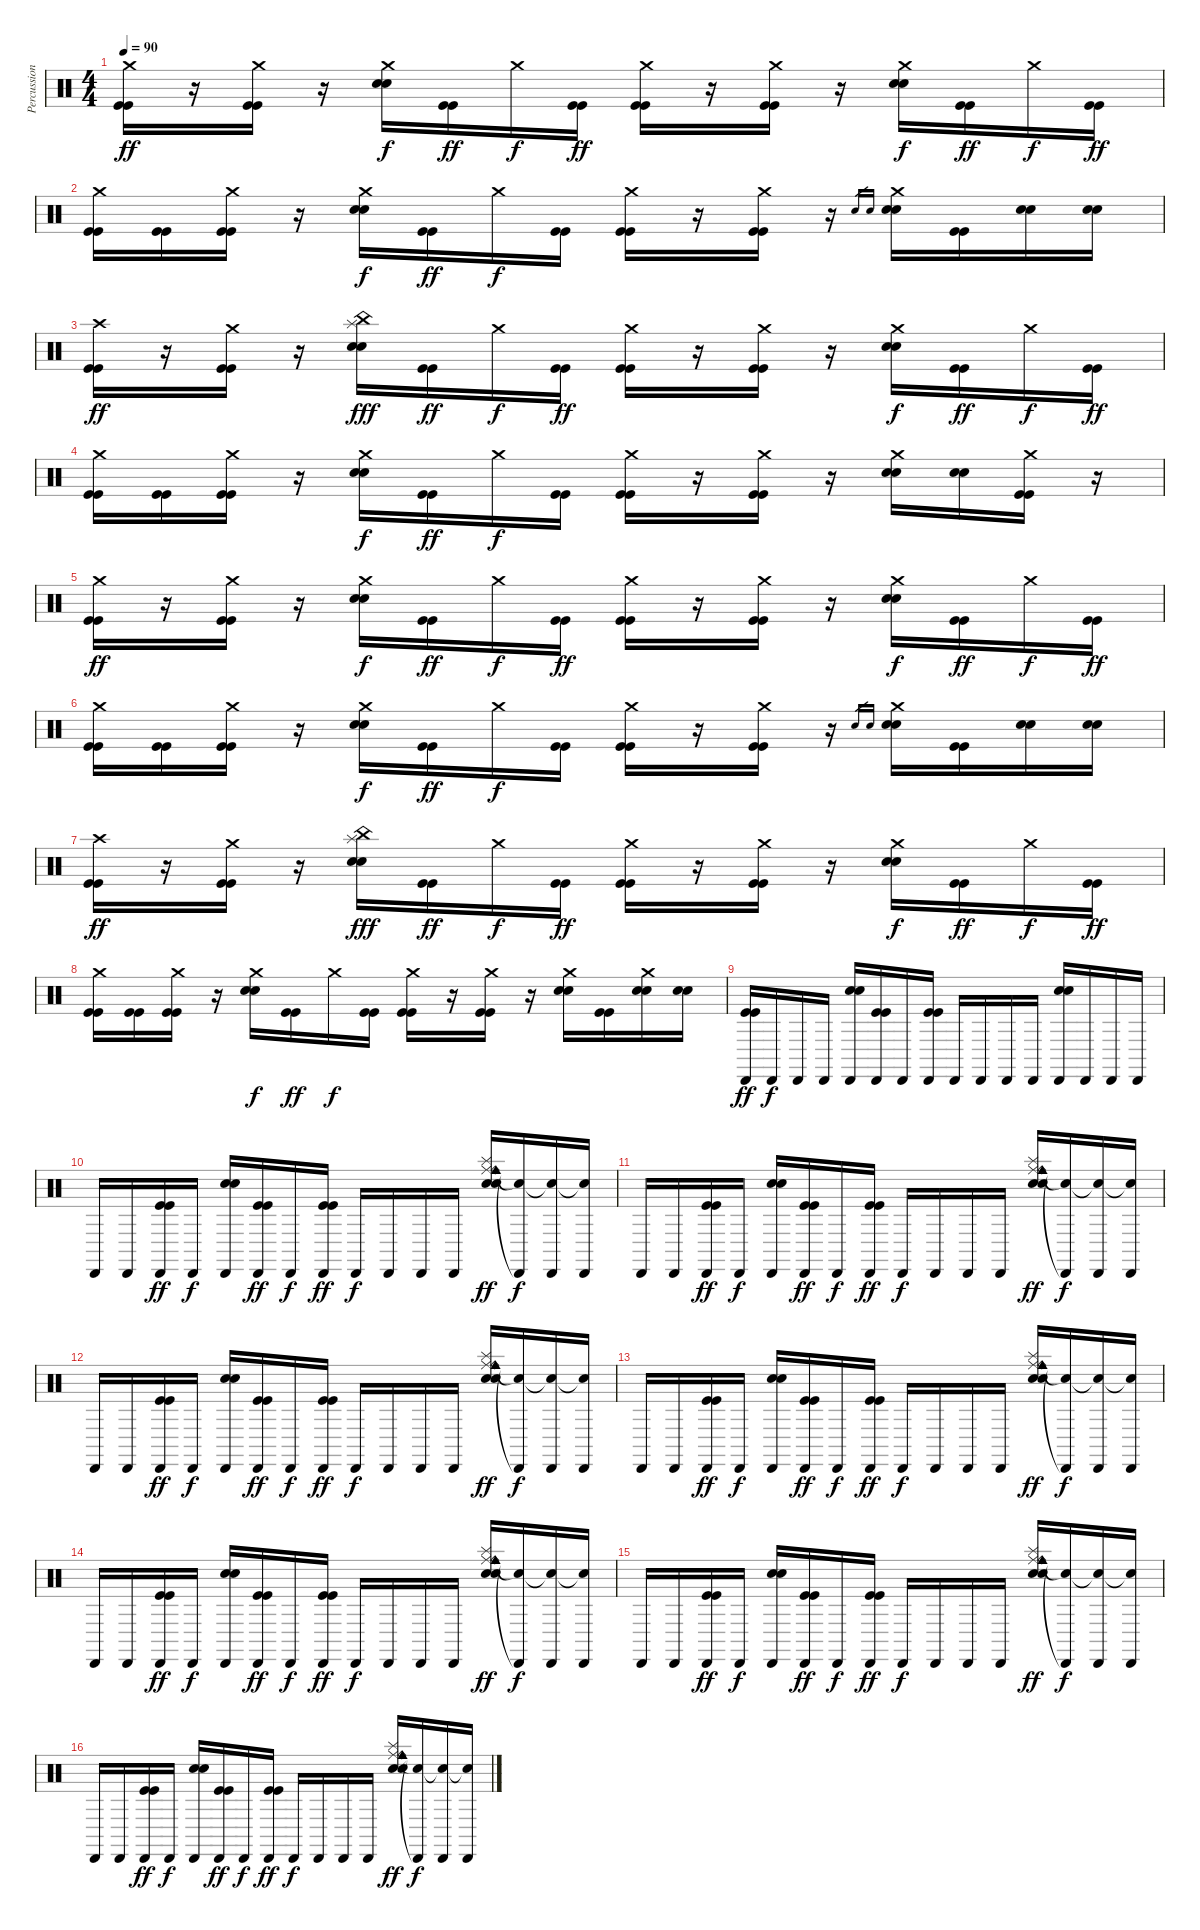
\track ("Percussions" "Percussion") {instrument percussion}
\staff {score}
\articulation defaults
\ts (4 4)
\tempo 90
\clef neutral
\ks c
("Crash medium (hit)" "Kick (hit)" "Kick (hit)").16{dy ff} r.16 ("Crash medium (hit)" "Kick (hit)" "Kick (hit)").16 r.16 ("Crash medium (hit)" "Electric Snare (hit)" "Electric Snare (hit)").16{dy f} ("Kick (hit)" "Kick (hit)").16{dy ff} "Crash medium (hit)".16{dy f} ("Kick (hit)" "Kick (hit)").16{dy ff} ("Crash medium (hit)" "Kick (hit)" "Kick (hit)").16 r.16 ("Crash medium (hit)" "Kick (hit)" "Kick (hit)").16 r.16 ("Crash medium (hit)" "Electric Snare (hit)" "Electric Snare (hit)").16{dy f} ("Kick (hit)" "Kick (hit)").16{dy ff} "Crash medium (hit)".16{dy f} ("Kick (hit)" "Kick (hit)").16{dy ff} |
("Crash medium (hit)" "Kick (hit)" "Kick (hit)").16 ("Kick (hit)" "Kick (hit)").16 ("Crash medium (hit)" "Kick (hit)" "Kick (hit)").16 r.16 ("Crash medium (hit)" "Electric Snare (hit)" "Electric Snare (hit)").16{dy f} ("Kick (hit)" "Kick (hit)").16{dy ff} "Crash medium (hit)".16{dy f} ("Kick (hit)" "Kick (hit)").16 ("Crash medium (hit)" "Kick (hit)" "Kick (hit)").16 r.16 ("Crash medium (hit)" "Kick (hit)" "Kick (hit)").16 r.16 "Electric Snare (hit)".16{gr} "Electric Snare (hit)".16{gr} ("Crash medium (hit)" "Electric Snare (hit)" "Electric Snare (hit)").16 ("Kick (hit)" "Kick (hit)").16 ("Electric Snare (hit)" "Electric Snare (hit)").16 ("Electric Snare (hit)" "Electric Snare (hit)").16 |
("Crash high (hit)" "Kick (hit)" "Kick (hit)").16{dy ff} r.16 ("Crash medium (hit)" "Kick (hit)" "Kick (hit)").16 r.16 ("China (hit)" "Splash (hit)" "Electric Snare (hit)" "Electric Snare (hit)").16{dy fff} ("Kick (hit)" "Kick (hit)").16{dy ff} "Crash medium (hit)".16{dy f} ("Kick (hit)" "Kick (hit)").16{dy ff} ("Crash medium (hit)" "Kick (hit)" "Kick (hit)").16 r.16 ("Crash medium (hit)" "Kick (hit)" "Kick (hit)").16 r.16 ("Crash medium (hit)" "Electric Snare (hit)" "Electric Snare (hit)").16{dy f} ("Kick (hit)" "Kick (hit)").16{dy ff} "Crash medium (hit)".16{dy f} ("Kick (hit)" "Kick (hit)").16{dy ff} |
("Crash medium (hit)" "Kick (hit)" "Kick (hit)").16 ("Kick (hit)" "Kick (hit)").16 ("Crash medium (hit)" "Kick (hit)" "Kick (hit)").16 r.16 ("Crash medium (hit)" "Electric Snare (hit)" "Electric Snare (hit)").16{dy f} ("Kick (hit)" "Kick (hit)").16{dy ff} "Crash medium (hit)".16{dy f} ("Kick (hit)" "Kick (hit)").16 ("Crash medium (hit)" "Kick (hit)" "Kick (hit)").16 r.16 ("Crash medium (hit)" "Kick (hit)" "Kick (hit)").16 r.16 ("Crash medium (hit)" "Electric Snare (hit)" "Electric Snare (hit)").16 ("Electric Snare (hit)" "Electric Snare (hit)").16 ("Crash medium (hit)" "Kick (hit)" "Kick (hit)").16 r.16 |
("Crash medium (hit)" "Kick (hit)" "Kick (hit)").16{dy ff} r.16 ("Crash medium (hit)" "Kick (hit)" "Kick (hit)").16 r.16 ("Crash medium (hit)" "Electric Snare (hit)" "Electric Snare (hit)").16{dy f} ("Kick (hit)" "Kick (hit)").16{dy ff} "Crash medium (hit)".16{dy f} ("Kick (hit)" "Kick (hit)").16{dy ff} ("Crash medium (hit)" "Kick (hit)" "Kick (hit)").16 r.16 ("Crash medium (hit)" "Kick (hit)" "Kick (hit)").16 r.16 ("Crash medium (hit)" "Electric Snare (hit)" "Electric Snare (hit)").16{dy f} ("Kick (hit)" "Kick (hit)").16{dy ff} "Crash medium (hit)".16{dy f} ("Kick (hit)" "Kick (hit)").16{dy ff} |
("Crash medium (hit)" "Kick (hit)" "Kick (hit)").16 ("Kick (hit)" "Kick (hit)").16 ("Crash medium (hit)" "Kick (hit)" "Kick (hit)").16 r.16 ("Crash medium (hit)" "Electric Snare (hit)" "Electric Snare (hit)").16{dy f} ("Kick (hit)" "Kick (hit)").16{dy ff} "Crash medium (hit)".16{dy f} ("Kick (hit)" "Kick (hit)").16 ("Crash medium (hit)" "Kick (hit)" "Kick (hit)").16 r.16 ("Crash medium (hit)" "Kick (hit)" "Kick (hit)").16 r.16 "Electric Snare (hit)".16{gr} "Electric Snare (hit)".16{gr} ("Crash medium (hit)" "Electric Snare (hit)" "Electric Snare (hit)").16 ("Kick (hit)" "Kick (hit)").16 ("Electric Snare (hit)" "Electric Snare (hit)").16 ("Electric Snare (hit)" "Electric Snare (hit)").16 |
("Crash high (hit)" "Kick (hit)" "Kick (hit)").16{dy ff} r.16 ("Crash medium (hit)" "Kick (hit)" "Kick (hit)").16 r.16 ("China (hit)" "Splash (hit)" "Electric Snare (hit)" "Electric Snare (hit)").16{dy fff} ("Kick (hit)" "Kick (hit)").16{dy ff} "Crash medium (hit)".16{dy f} ("Kick (hit)" "Kick (hit)").16{dy ff} ("Crash medium (hit)" "Kick (hit)" "Kick (hit)").16 r.16 ("Crash medium (hit)" "Kick (hit)" "Kick (hit)").16 r.16 ("Crash medium (hit)" "Electric Snare (hit)" "Electric Snare (hit)").16{dy f} ("Kick (hit)" "Kick (hit)").16{dy ff} "Crash medium (hit)".16{dy f} ("Kick (hit)" "Kick (hit)").16{dy ff} |
("Crash medium (hit)" "Kick (hit)" "Kick (hit)").16 ("Kick (hit)" "Kick (hit)").16 ("Crash medium (hit)" "Kick (hit)" "Kick (hit)").16 r.16 ("Crash medium (hit)" "Electric Snare (hit)" "Electric Snare (hit)").16{dy f} ("Kick (hit)" "Kick (hit)").16{dy ff} "Crash medium (hit)".16{dy f} ("Kick (hit)" "Kick (hit)").16 ("Crash medium (hit)" "Kick (hit)" "Kick (hit)").16 r.16 ("Crash medium (hit)" "Kick (hit)" "Kick (hit)").16 r.16 ("Crash medium (hit)" "Electric Snare (hit)" "Electric Snare (hit)").16 ("Kick (hit)" "Kick (hit)").16 ("Crash medium (hit)" "Electric Snare (hit)" "Electric Snare (hit)").16 ("Electric Snare (hit)" "Electric Snare (hit)").16 |
("Cabasa (hit)" "Kick (hit)" "Kick (hit)").16{dy ff} "Cabasa (hit)".16{dy f} "Cabasa (hit)".16 "Cabasa (hit)".16 ("Cabasa (hit)" "Electric Snare (hit)" "Electric Snare (hit)").16 ("Cabasa (hit)" "Kick (hit)" "Kick (hit)").16 "Cabasa (hit)".16 ("Cabasa (hit)" "Kick (hit)" "Kick (hit)").16 "Cabasa (hit)".16 "Cabasa (hit)".16 "Cabasa (hit)".16 "Cabasa (hit)".16 ("Cabasa (hit)" "Electric Snare (hit)" "Electric Snare (hit)").16 "Cabasa (hit)".16 "Cabasa (hit)".16 "Cabasa (hit)".16 |
"Cabasa (hit)".16 "Cabasa (hit)".16 ("Cabasa (hit)" "Kick (hit)" "Kick (hit)").16{dy ff} "Cabasa (hit)".16{dy f} ("Cabasa (hit)" "Electric Snare (hit)" "Electric Snare (hit)").16 ("Cabasa (hit)" "Kick (hit)" "Kick (hit)").16{dy ff} "Cabasa (hit)".16{dy f} ("Cabasa (hit)" "Kick (hit)" "Kick (hit)").16{dy ff} "Cabasa (hit)".16{dy f} "Cabasa (hit)".16 "Cabasa (hit)".16 "Cabasa (hit)".16 ("Ride (middle)" "Cowbell medium (hit)" "Electric Snare (hit)" "Electric Snare (hit)" "Ride (bell)" "Splash (hit)").16{dy ff} ("Cabasa (hit)"{t} "Snare (hit)"{t}).16{dy f} ("Cabasa (hit)" "Snare (hit)"{t}).16 ("Cabasa (hit)" "Snare (hit)"{t}).16 |
"Cabasa (hit)".16 "Cabasa (hit)".16 ("Cabasa (hit)" "Kick (hit)" "Kick (hit)").16{dy ff} "Cabasa (hit)".16{dy f} ("Cabasa (hit)" "Electric Snare (hit)" "Electric Snare (hit)").16 ("Cabasa (hit)" "Kick (hit)" "Kick (hit)").16{dy ff} "Cabasa (hit)".16{dy f} ("Cabasa (hit)" "Kick (hit)" "Kick (hit)").16{dy ff} "Cabasa (hit)".16{dy f} "Cabasa (hit)".16 "Cabasa (hit)".16 "Cabasa (hit)".16 ("Ride (middle)" "Cowbell medium (hit)" "Electric Snare (hit)" "Electric Snare (hit)" "Ride (bell)" "Splash (hit)").16{dy ff} ("Cabasa (hit)"{t} "Snare (hit)"{t}).16{dy f} ("Cabasa (hit)" "Snare (hit)"{t}).16 ("Cabasa (hit)" "Snare (hit)"{t}).16 |
"Cabasa (hit)".16 "Cabasa (hit)".16 ("Cabasa (hit)" "Kick (hit)" "Kick (hit)").16{dy ff} "Cabasa (hit)".16{dy f} ("Cabasa (hit)" "Electric Snare (hit)" "Electric Snare (hit)").16 ("Cabasa (hit)" "Kick (hit)" "Kick (hit)").16{dy ff} "Cabasa (hit)".16{dy f} ("Cabasa (hit)" "Kick (hit)" "Kick (hit)").16{dy ff} "Cabasa (hit)".16{dy f} "Cabasa (hit)".16 "Cabasa (hit)".16 "Cabasa (hit)".16 ("Ride (middle)" "Cowbell medium (hit)" "Electric Snare (hit)" "Electric Snare (hit)" "Ride (bell)" "Splash (hit)").16{dy ff} ("Cabasa (hit)"{t} "Snare (hit)"{t}).16{dy f} ("Cabasa (hit)" "Snare (hit)"{t}).16 ("Cabasa (hit)" "Snare (hit)"{t}).16 |
"Cabasa (hit)".16 "Cabasa (hit)".16 ("Cabasa (hit)" "Kick (hit)" "Kick (hit)").16{dy ff} "Cabasa (hit)".16{dy f} ("Cabasa (hit)" "Electric Snare (hit)" "Electric Snare (hit)").16 ("Cabasa (hit)" "Kick (hit)" "Kick (hit)").16{dy ff} "Cabasa (hit)".16{dy f} ("Cabasa (hit)" "Kick (hit)" "Kick (hit)").16{dy ff} "Cabasa (hit)".16{dy f} "Cabasa (hit)".16 "Cabasa (hit)".16 "Cabasa (hit)".16 ("Ride (middle)" "Cowbell medium (hit)" "Electric Snare (hit)" "Electric Snare (hit)" "Ride (bell)" "Splash (hit)").16{dy ff} ("Cabasa (hit)"{t} "Snare (hit)"{t}).16{dy f} ("Cabasa (hit)" "Snare (hit)"{t}).16 ("Cabasa (hit)" "Snare (hit)"{t}).16 |
"Cabasa (hit)".16 "Cabasa (hit)".16 ("Cabasa (hit)" "Kick (hit)" "Kick (hit)").16{dy ff} "Cabasa (hit)".16{dy f} ("Cabasa (hit)" "Electric Snare (hit)" "Electric Snare (hit)").16 ("Cabasa (hit)" "Kick (hit)" "Kick (hit)").16{dy ff} "Cabasa (hit)".16{dy f} ("Cabasa (hit)" "Kick (hit)" "Kick (hit)").16{dy ff} "Cabasa (hit)".16{dy f} "Cabasa (hit)".16 "Cabasa (hit)".16 "Cabasa (hit)".16 ("Ride (middle)" "Cowbell medium (hit)" "Electric Snare (hit)" "Electric Snare (hit)" "Ride (bell)" "Splash (hit)").16{dy ff} ("Cabasa (hit)"{t} "Snare (hit)"{t}).16{dy f} ("Cabasa (hit)" "Snare (hit)"{t}).16 ("Cabasa (hit)" "Snare (hit)"{t}).16 |
"Cabasa (hit)".16{volume 12} "Cabasa (hit)".16 ("Cabasa (hit)" "Kick (hit)" "Kick (hit)").16{dy ff} "Cabasa (hit)".16{dy f} ("Cabasa (hit)" "Electric Snare (hit)" "Electric Snare (hit)").16 ("Cabasa (hit)" "Kick (hit)" "Kick (hit)").16{dy ff} "Cabasa (hit)".16{dy f} ("Cabasa (hit)" "Kick (hit)" "Kick (hit)").16{dy ff} "Cabasa (hit)".16{dy f} "Cabasa (hit)".16 "Cabasa (hit)".16 "Cabasa (hit)".16 ("Ride (middle)" "Cowbell medium (hit)" "Electric Snare (hit)" "Electric Snare (hit)" "Ride (bell)" "Splash (hit)").16{dy ff} ("Cabasa (hit)"{t} "Snare (hit)"{t}).16{dy f} ("Cabasa (hit)" "Snare (hit)"{t}).16 ("Cabasa (hit)" "Snare (hit)"{t}).16 |
"Cabasa (hit)".16{volume 8} "Cabasa (hit)".16 ("Cabasa (hit)" "Kick (hit)" "Kick (hit)").16{dy ff} "Cabasa (hit)".16{dy f} ("Cabasa (hit)" "Electric Snare (hit)" "Electric Snare (hit)").16 ("Cabasa (hit)" "Kick (hit)" "Kick (hit)").16{dy ff} "Cabasa (hit)".16{dy f} ("Cabasa (hit)" "Kick (hit)" "Kick (hit)").16{dy ff} "Cabasa (hit)".16{dy f} "Cabasa (hit)".16 "Cabasa (hit)".16 "Cabasa (hit)".16 ("Ride (middle)" "Cowbell medium (hit)" "Electric Snare (hit)" "Electric Snare (hit)" "Ride (bell)" "Splash (hit)").16{dy ff} ("Cabasa (hit)"{t} "Snare (hit)"{t}).16{dy f} ("Cabasa (hit)" "Snare (hit)"{t}).16 ("Cabasa (hit)" "Snare (hit)"{t}).16
